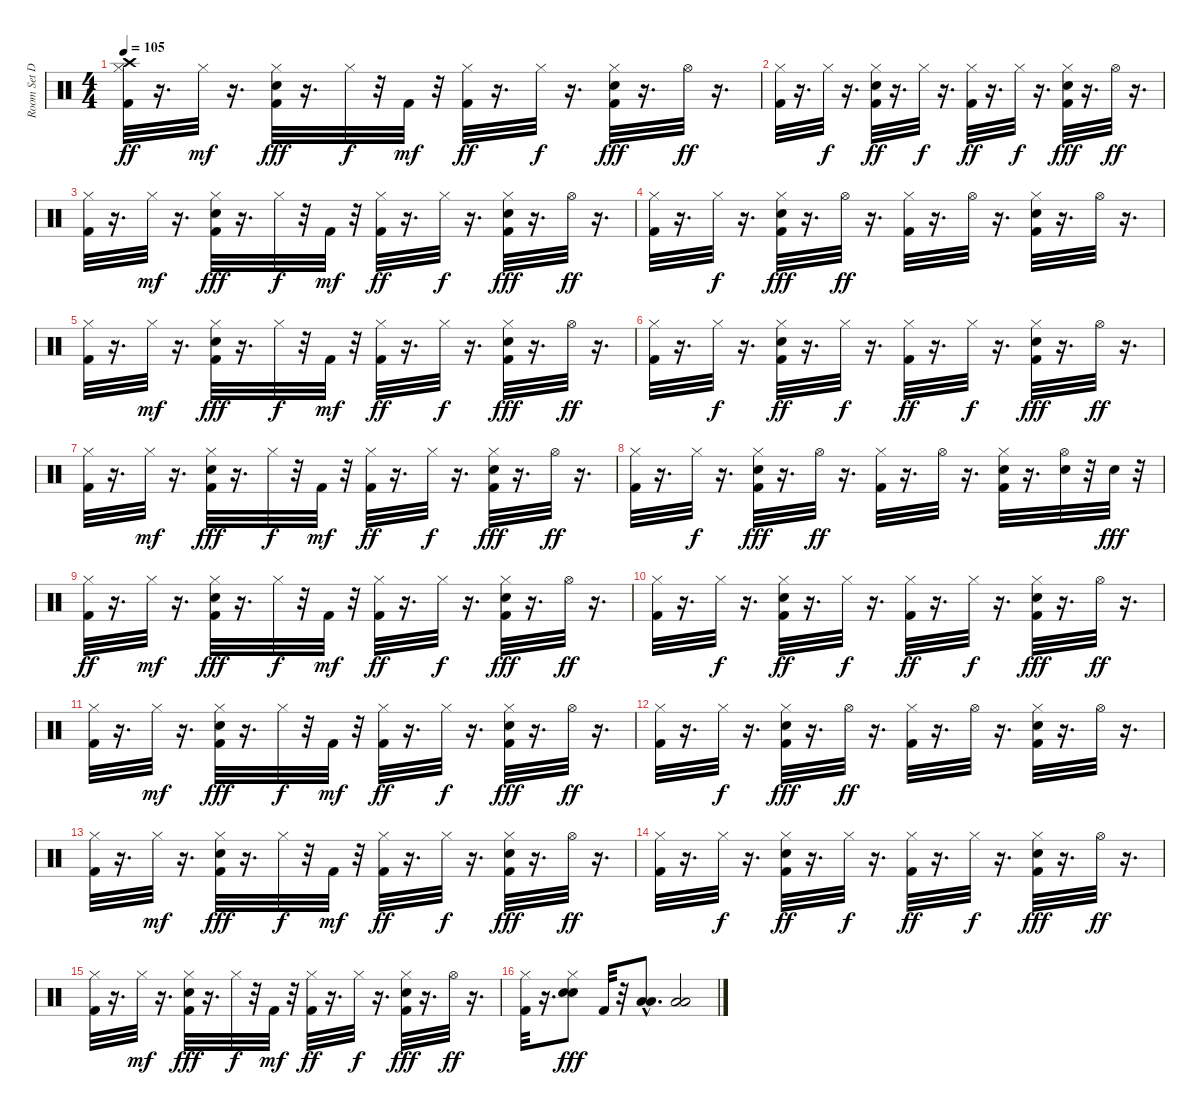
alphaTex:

\track ("Room Set Drums" "Room Set D") {instrument percussion}
\staff {score}
\articulation defaults
\ts (4 4)
\tempo 105
\clef neutral
\ks c
("Kick (hit) 2" "Hi-Hat (closed)" "Crash high (hit)").32{dy ff} r.16{d} "Hi-Hat (closed)".32{dy mf} r.16{d} ("Kick (hit) 2" "Electric Snare (hit)" "Hi-Hat (closed)").32{dy fff} r.16{d} "Hi-Hat (closed)".32{dy f} r.32 "Kick (hit) 2".32{dy mf} r.32 ("Kick (hit) 2" "Hi-Hat (closed)").32{dy ff} r.16{d} "Hi-Hat (closed)".32{dy f} r.16{d} ("Kick (hit) 2" "Electric Snare (hit)" "Hi-Hat (closed)").32{dy fff} r.16{d} "Hi-Hat (open)".32{dy ff} r.16{d} |
("Kick (hit) 2" "Hi-Hat (closed)").32 r.16{d} "Hi-Hat (closed)".32{dy f} r.16{d} ("Kick (hit) 2" "Electric Snare (hit)" "Hi-Hat (closed)").32{dy ff} r.16{d} "Hi-Hat (closed)".32{dy f} r.16{d} ("Kick (hit) 2" "Hi-Hat (closed)").32{dy ff} r.16{d} "Hi-Hat (closed)".32{dy f} r.16{d} ("Kick (hit) 2" "Electric Snare (hit)" "Hi-Hat (closed)").32{dy fff} r.16{d} "Hi-Hat (open)".32{dy ff} r.16{d} |
("Kick (hit) 2" "Hi-Hat (closed)").32 r.16{d} "Hi-Hat (closed)".32{dy mf} r.16{d} ("Kick (hit) 2" "Electric Snare (hit)" "Hi-Hat (closed)").32{dy fff} r.16{d} "Hi-Hat (closed)".32{dy f} r.32 "Kick (hit) 2".32{dy mf} r.32 ("Kick (hit) 2" "Hi-Hat (closed)").32{dy ff} r.16{d} "Hi-Hat (closed)".32{dy f} r.16{d} ("Kick (hit) 2" "Electric Snare (hit)" "Hi-Hat (closed)").32{dy fff} r.16{d} "Hi-Hat (open)".32{dy ff} r.16{d} |
("Kick (hit) 2" "Hi-Hat (closed)").32 r.16{d} "Hi-Hat (closed)".32{dy f} r.16{d} ("Kick (hit) 2" "Electric Snare (hit)" "Hi-Hat (closed)").32{dy fff} r.16{d} "Hi-Hat (open)".32{dy ff} r.16{d} ("Kick (hit) 2" "Hi-Hat (closed)").32 r.16{d} "Hi-Hat (open)".32 r.16{d} ("Kick (hit) 2" "Electric Snare (hit)" "Hi-Hat (closed)").32 r.16{d} "Hi-Hat (open)".32 r.16{d} |
("Kick (hit) 2" "Hi-Hat (closed)").32 r.16{d} "Hi-Hat (closed)".32{dy mf} r.16{d} ("Kick (hit) 2" "Electric Snare (hit)" "Hi-Hat (closed)").32{dy fff} r.16{d} "Hi-Hat (closed)".32{dy f} r.32 "Kick (hit) 2".32{dy mf} r.32 ("Kick (hit) 2" "Hi-Hat (closed)").32{dy ff} r.16{d} "Hi-Hat (closed)".32{dy f} r.16{d} ("Kick (hit) 2" "Electric Snare (hit)" "Hi-Hat (closed)").32{dy fff} r.16{d} "Hi-Hat (open)".32{dy ff} r.16{d} |
("Kick (hit) 2" "Hi-Hat (closed)").32 r.16{d} "Hi-Hat (closed)".32{dy f} r.16{d} ("Kick (hit) 2" "Electric Snare (hit)" "Hi-Hat (closed)").32{dy ff} r.16{d} "Hi-Hat (closed)".32{dy f} r.16{d} ("Kick (hit) 2" "Hi-Hat (closed)").32{dy ff} r.16{d} "Hi-Hat (closed)".32{dy f} r.16{d} ("Kick (hit) 2" "Electric Snare (hit)" "Hi-Hat (closed)").32{dy fff} r.16{d} "Hi-Hat (open)".32{dy ff} r.16{d} |
("Kick (hit) 2" "Hi-Hat (closed)").32 r.16{d} "Hi-Hat (closed)".32{dy mf} r.16{d} ("Kick (hit) 2" "Electric Snare (hit)" "Hi-Hat (closed)").32{dy fff} r.16{d} "Hi-Hat (closed)".32{dy f} r.32 "Kick (hit) 2".32{dy mf} r.32 ("Kick (hit) 2" "Hi-Hat (closed)").32{dy ff} r.16{d} "Hi-Hat (closed)".32{dy f} r.16{d} ("Kick (hit) 2" "Electric Snare (hit)" "Hi-Hat (closed)").32{dy fff} r.16{d} "Hi-Hat (open)".32{dy ff} r.16{d} |
("Kick (hit) 2" "Hi-Hat (closed)").32 r.16{d} "Hi-Hat (closed)".32{dy f} r.16{d} ("Kick (hit) 2" "Electric Snare (hit)" "Hi-Hat (closed)").32{dy fff} r.16{d} "Hi-Hat (open)".32{dy ff} r.16{d} ("Kick (hit) 2" "Hi-Hat (closed)").32 r.16{d} "Hi-Hat (open)".32 r.16{d} ("Kick (hit) 2" "Electric Snare (hit)" "Hi-Hat (closed)").32 r.16{d} ("Electric Snare (hit)" "Hi-Hat (open)").32 r.32 "Electric Snare (hit)".32{dy fff} r.32 |
("Kick (hit) 2" "Hi-Hat (closed)").32{dy ff} r.16{d} "Hi-Hat (closed)".32{dy mf} r.16{d} ("Kick (hit) 2" "Electric Snare (hit)" "Hi-Hat (closed)").32{dy fff} r.16{d} "Hi-Hat (closed)".32{dy f} r.32 "Kick (hit) 2".32{dy mf} r.32 ("Kick (hit) 2" "Hi-Hat (closed)").32{dy ff} r.16{d} "Hi-Hat (closed)".32{dy f} r.16{d} ("Kick (hit) 2" "Electric Snare (hit)" "Hi-Hat (closed)").32{dy fff} r.16{d} "Hi-Hat (open)".32{dy ff} r.16{d} |
("Kick (hit) 2" "Hi-Hat (closed)").32 r.16{d} "Hi-Hat (closed)".32{dy f} r.16{d} ("Kick (hit) 2" "Electric Snare (hit)" "Hi-Hat (closed)").32{dy ff} r.16{d} "Hi-Hat (closed)".32{dy f} r.16{d} ("Kick (hit) 2" "Hi-Hat (closed)").32{dy ff} r.16{d} "Hi-Hat (closed)".32{dy f} r.16{d} ("Kick (hit) 2" "Electric Snare (hit)" "Hi-Hat (closed)").32{dy fff} r.16{d} "Hi-Hat (open)".32{dy ff} r.16{d} |
("Kick (hit) 2" "Hi-Hat (closed)").32 r.16{d} "Hi-Hat (closed)".32{dy mf} r.16{d} ("Kick (hit) 2" "Electric Snare (hit)" "Hi-Hat (closed)").32{dy fff} r.16{d} "Hi-Hat (closed)".32{dy f} r.32 "Kick (hit) 2".32{dy mf} r.32 ("Kick (hit) 2" "Hi-Hat (closed)").32{dy ff} r.16{d} "Hi-Hat (closed)".32{dy f} r.16{d} ("Kick (hit) 2" "Electric Snare (hit)" "Hi-Hat (closed)").32{dy fff} r.16{d} "Hi-Hat (open)".32{dy ff} r.16{d} |
("Kick (hit) 2" "Hi-Hat (closed)").32 r.16{d} "Hi-Hat (closed)".32{dy f} r.16{d} ("Kick (hit) 2" "Electric Snare (hit)" "Hi-Hat (closed)").32{dy fff} r.16{d} "Hi-Hat (open)".32{dy ff} r.16{d} ("Kick (hit) 2" "Hi-Hat (closed)").32 r.16{d} "Hi-Hat (open)".32 r.16{d} ("Kick (hit) 2" "Electric Snare (hit)" "Hi-Hat (closed)").32 r.16{d} "Hi-Hat (open)".32 r.16{d} |
("Kick (hit) 2" "Hi-Hat (closed)").32 r.16{d} "Hi-Hat (closed)".32{dy mf} r.16{d} ("Kick (hit) 2" "Electric Snare (hit)" "Hi-Hat (closed)").32{dy fff} r.16{d} "Hi-Hat (closed)".32{dy f} r.32 "Kick (hit) 2".32{dy mf} r.32 ("Kick (hit) 2" "Hi-Hat (closed)").32{dy ff} r.16{d} "Hi-Hat (closed)".32{dy f} r.16{d} ("Kick (hit) 2" "Electric Snare (hit)" "Hi-Hat (closed)").32{dy fff} r.16{d} "Hi-Hat (open)".32{dy ff} r.16{d} |
("Kick (hit) 2" "Hi-Hat (closed)").32 r.16{d} "Hi-Hat (closed)".32{dy f} r.16{d} ("Kick (hit) 2" "Electric Snare (hit)" "Hi-Hat (closed)").32{dy ff} r.16{d} "Hi-Hat (closed)".32{dy f} r.16{d} ("Kick (hit) 2" "Hi-Hat (closed)").32{dy ff} r.16{d} "Hi-Hat (closed)".32{dy f} r.16{d} ("Kick (hit) 2" "Electric Snare (hit)" "Hi-Hat (closed)").32{dy fff} r.16{d} "Hi-Hat (open)".32{dy ff} r.16{d} |
("Kick (hit) 2" "Hi-Hat (closed)").32 r.16{d} "Hi-Hat (closed)".32{dy mf} r.16{d} ("Kick (hit) 2" "Electric Snare (hit)" "Hi-Hat (closed)").32{dy fff} r.16{d} "Hi-Hat (closed)".32{dy f} r.32 "Kick (hit) 2".32{dy mf} r.32 ("Kick (hit) 2" "Hi-Hat (closed)").32{dy ff} r.16{d} "Hi-Hat (closed)".32{dy f} r.16{d} ("Kick (hit) 2" "Electric Snare (hit)" "Hi-Hat (closed)").32{dy fff} r.16{d} "Hi-Hat (open)".32{dy ff} r.16{d} |
("Kick (hit) 2" "Hi-Hat (closed)").32 r.16{d} ("Electric Snare (hit)" "Hi-Hat (closed)" "Electric Snare (hit)").8{dy fff} "Kick (hit) 2".32 r.32 ("Low Tom (hit)"{hac} "Low Tom (hit)").8{d} ("Low Floor Tom (hit)" "Low Floor Tom (hit)").2
